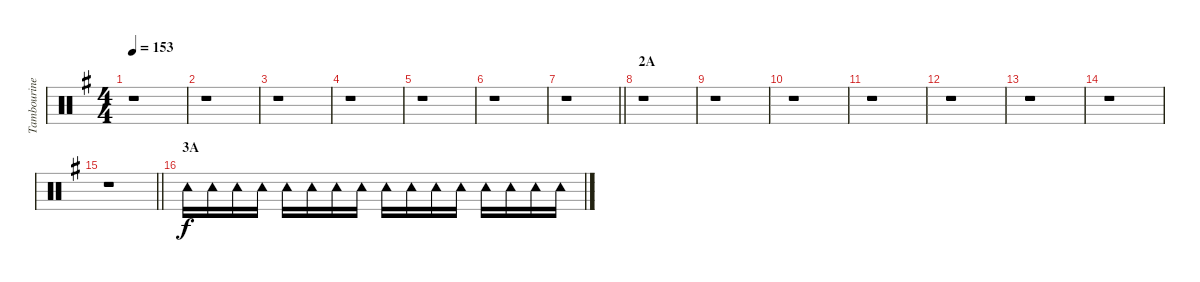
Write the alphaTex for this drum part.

\track ("Tambourine" "Tambourine") {instrument percussion}
\staff {score}
\articulation defaults
\ts (4 4)
\tempo 153
\clef neutral
\ks g
r.1{dy f} |
r.1 |
r.1 |
r.1 |
r.1 |
r.1 |
\barLineRight lightlight
r.1 |
\section ("" "2A")
r.1 |
r.1 |
r.1 |
r.1 |
r.1 |
r.1 |
r.1 |
\barLineRight lightlight
r.1 |
\section ("" "3A")
"Tambourine (hit)".16 "Tambourine (hit)".16 "Tambourine (hit)".16 "Tambourine (hit)".16 "Tambourine (hit)".16 "Tambourine (hit)".16 "Tambourine (hit)".16 "Tambourine (hit)".16 "Tambourine (hit)".16 "Tambourine (hit)".16 "Tambourine (hit)".16 "Tambourine (hit)".16 "Tambourine (hit)".16 "Tambourine (hit)".16 "Tambourine (hit)".16 "Tambourine (hit)".16
